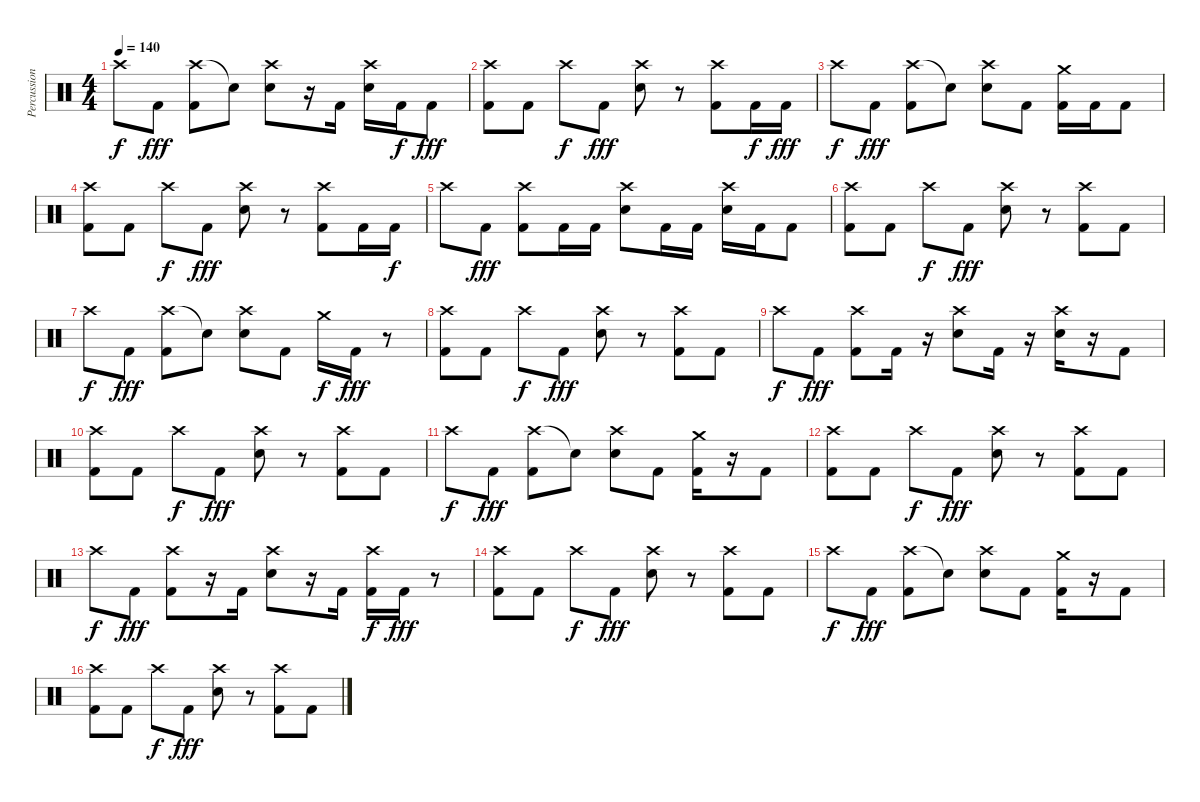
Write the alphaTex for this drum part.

\track ("Percussion" "Percussion") {instrument percussion}
\staff {score}
\articulation defaults
\ts (4 4)
\tempo 140
\clef neutral
\ks c "Crash high (hit)".8{dy f} "Kick (hit) 2".8{dy fff}
("Crash high (hit)" "Kick (hit) 2").8 "Snare (hit)"{t}.8 ("Crash high (hit)" "Electric Snare (hit)").8 r.16 "Kick (hit) 2".16 ("Crash high (hit)" "Electric Snare (hit)").16 "Kick (hit) 2".16{dy f} "Kick (hit) 2".8{dy fff} |
("Crash high (hit)" "Kick (hit) 2").8 "Kick (hit) 2".8 "Crash high (hit)".8{dy f} "Kick (hit) 2".8{dy fff} ("Crash high (hit)" "Electric Snare (hit)").8 r.8 ("Crash high (hit)" "Kick (hit) 2").8 "Kick (hit) 2".16{dy f} "Kick (hit) 2".16{dy fff} |
"Crash high (hit)".8{dy f} "Kick (hit) 2".8{dy fff} ("Crash high (hit)" "Kick (hit) 2").8 "Snare (hit)"{t}.8 ("Crash high (hit)" "Electric Snare (hit)").8 "Kick (hit) 2".8 ("Crash medium (hit)" "Kick (hit) 2").16 "Kick (hit) 2".16 "Kick (hit) 2".8 |
("Crash high (hit)" "Kick (hit) 2").8 "Kick (hit) 2".8 "Crash high (hit)".8{dy f} "Kick (hit) 2".8{dy fff} ("Crash high (hit)" "Electric Snare (hit)").8 r.8 ("Crash high (hit)" "Kick (hit) 2").8 "Kick (hit) 2".16 "Kick (hit) 2".16{dy f} |
"Crash high (hit)".8 "Kick (hit) 2".8{dy fff} ("Crash high (hit)" "Kick (hit) 2").8 "Kick (hit) 2".16 "Kick (hit) 2".16 ("Crash high (hit)" "Electric Snare (hit)").8 "Kick (hit) 2".16 "Kick (hit) 2".16 ("Crash high (hit)" "Electric Snare (hit)").16 "Kick (hit) 2".16 "Kick (hit) 2".8 |
("Crash high (hit)" "Kick (hit) 2").8 "Kick (hit) 2".8 "Crash high (hit)".8{dy f} "Kick (hit) 2".8{dy fff} ("Crash high (hit)" "Electric Snare (hit)").8 r.8 ("Crash high (hit)" "Kick (hit) 2").8 "Kick (hit) 2".8 |
"Crash high (hit)".8{dy f} "Kick (hit) 2".8{dy fff} ("Crash high (hit)" "Kick (hit) 2").8 "Snare (hit)"{t}.8 ("Crash high (hit)" "Electric Snare (hit)").8 "Kick (hit) 2".8 "Crash medium (hit)".16{dy f} "Kick (hit) 2".16{dy fff} r.8 |
("Crash high (hit)" "Kick (hit) 2").8 "Kick (hit) 2".8 "Crash high (hit)".8{dy f} "Kick (hit) 2".8{dy fff} ("Crash high (hit)" "Electric Snare (hit)").8 r.8 ("Crash high (hit)" "Kick (hit) 2").8 "Kick (hit) 2".8 |
"Crash high (hit)".8{dy f} "Kick (hit) 2".8{dy fff} ("Crash high (hit)" "Kick (hit) 2").8 "Kick (hit) 2".16 r.16 ("Crash high (hit)" "Electric Snare (hit)").8 "Kick (hit) 2".16 r.16 ("Crash high (hit)" "Electric Snare (hit)").16 r.16 "Kick (hit) 2".8 |
("Crash high (hit)" "Kick (hit) 2").8 "Kick (hit) 2".8 "Crash high (hit)".8{dy f} "Kick (hit) 2".8{dy fff} ("Crash high (hit)" "Electric Snare (hit)").8 r.8 ("Crash high (hit)" "Kick (hit) 2").8 "Kick (hit) 2".8 |
"Crash high (hit)".8{dy f} "Kick (hit) 2".8{dy fff} ("Crash high (hit)" "Kick (hit) 2").8 "Snare (hit)"{t}.8 ("Crash high (hit)" "Electric Snare (hit)").8 "Kick (hit) 2".8 ("Crash medium (hit)" "Kick (hit) 2").16 r.16 "Kick (hit) 2".8 |
("Crash high (hit)" "Kick (hit) 2").8 "Kick (hit) 2".8 "Crash high (hit)".8{dy f} "Kick (hit) 2".8{dy fff} ("Crash high (hit)" "Electric Snare (hit)").8 r.8 ("Crash high (hit)" "Kick (hit) 2").8 "Kick (hit) 2".8 |
"Crash high (hit)".8{dy f} "Kick (hit) 2".8{dy fff} ("Crash high (hit)" "Kick (hit) 2").8 r.16 "Kick (hit) 2".16 ("Crash high (hit)" "Electric Snare (hit)").8 r.16 "Kick (hit) 2".16 ("Crash high (hit)" "Kick (hit) 2").16{dy f} "Kick (hit) 2".16{dy fff} r.8 |
("Crash high (hit)" "Kick (hit) 2").8 "Kick (hit) 2".8 "Crash high (hit)".8{dy f} "Kick (hit) 2".8{dy fff} ("Crash high (hit)" "Electric Snare (hit)").8 r.8 ("Crash high (hit)" "Kick (hit) 2").8 "Kick (hit) 2".8 |
"Crash high (hit)".8{dy f} "Kick (hit) 2".8{dy fff} ("Crash high (hit)" "Kick (hit) 2").8 "Snare (hit)"{t}.8 ("Crash high (hit)" "Electric Snare (hit)").8 "Kick (hit) 2".8 ("Crash medium (hit)" "Kick (hit) 2").16 r.16 "Kick (hit) 2".8 |
("Crash high (hit)" "Kick (hit) 2").8 "Kick (hit) 2".8 "Crash high (hit)".8{dy f} "Kick (hit) 2".8{dy fff} ("Crash high (hit)" "Electric Snare (hit)").8 r.8 ("Crash high (hit)" "Kick (hit) 2").8 "Kick (hit) 2".8
